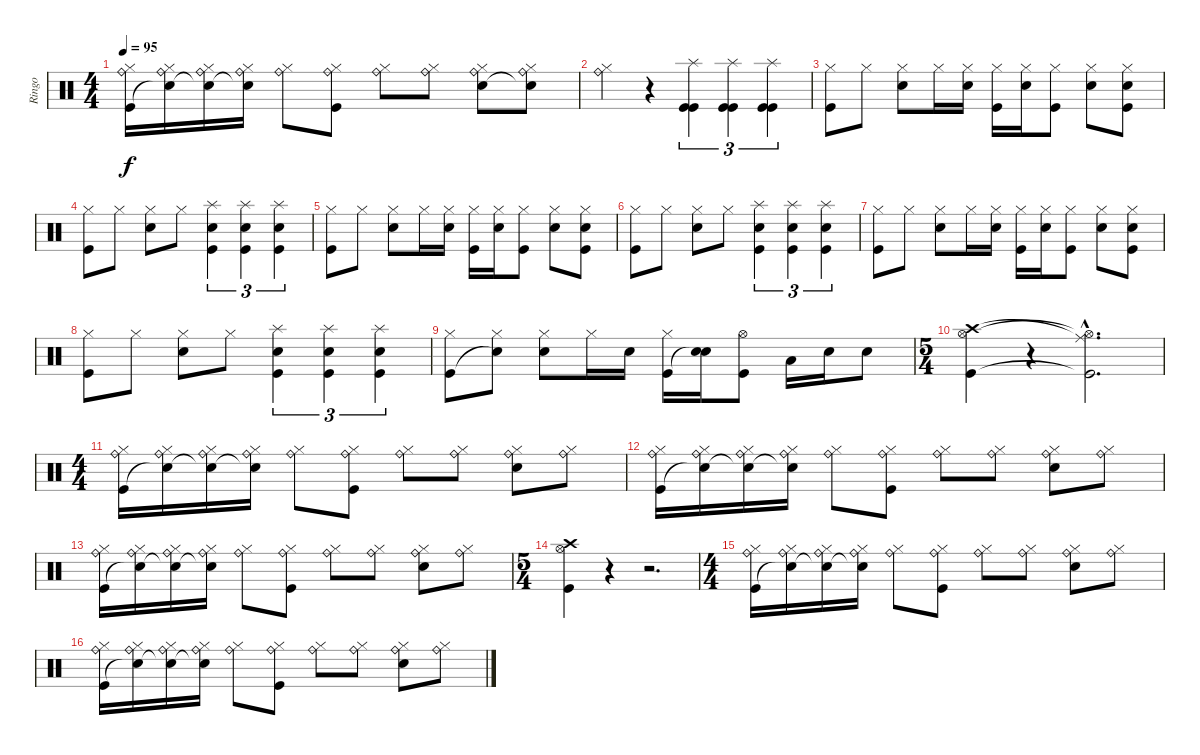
\track ("Ringo" "Ringo") {instrument percussion}
\staff {score}
\articulation defaults
\ts (4 4)
\tempo 95
\clef neutral
\ks c
("Ride (bell)" "Hi-Hat (closed)" "Kick (hit)").16{dy f} ("Ride (bell)" "Hi-Hat (closed)" "Snare (hit)"{t}).16 ("Ride (bell)" "Hi-Hat (closed)" "Snare (hit)"{t}).16 ("Ride (bell)" "Hi-Hat (closed)" "Snare (hit)"{t}).16 ("Ride (bell)" "Hi-Hat (closed)").8 ("Ride (bell)" "Hi-Hat (closed)" "Kick (hit)").8 ("Ride (bell)" "Hi-Hat (closed)").8 ("Ride (bell)" "Hi-Hat (closed)").8 ("Ride (bell)" "Hi-Hat (closed)" "Snare (hit) 2").8 ("Ride (bell)" "Hi-Hat (closed)" "Snare (hit)"{t}).8 |
("Ride (bell)" "Hi-Hat (closed)").4 r.4 ("Splash (hit)" "Kick (hit)" "Kick (hit)").4{tu (3 2)} ("Splash (hit)" "Kick (hit)" "Kick (hit)").4{tu (3 2)} ("Splash (hit)" "Kick (hit)" "Kick (hit)").4{tu (3 2)} |
("Hi-Hat (closed)" "Kick (hit)").8{volume 13} "Hi-Hat (closed)".8 ("Hi-Hat (closed)" "Snare (hit) 2").8 "Hi-Hat (closed)".16 ("Hi-Hat (closed)" "Snare (hit) 2").16 ("Hi-Hat (closed)" "Kick (hit)").16 ("Hi-Hat (closed)" "Snare (hit) 2").16 ("Hi-Hat (closed)" "Kick (hit)").8 ("Hi-Hat (closed)" "Snare (hit) 2").8 ("Hi-Hat (closed)" "Snare (hit) 2" "Kick (hit)").8 |
("Hi-Hat (closed)" "Kick (hit)").8 "Hi-Hat (closed)".8 ("Hi-Hat (closed)" "Snare (hit) 2").8 "Hi-Hat (closed)".8 ("Splash (hit)" "Snare (hit) 2" "Kick (hit)").4{tu (3 2)} ("Splash (hit)" "Snare (hit) 2" "Kick (hit)").4{tu (3 2)} ("Splash (hit)" "Snare (hit) 2" "Kick (hit)").4{tu (3 2)} |
("Hi-Hat (closed)" "Kick (hit)").8 "Hi-Hat (closed)".8 ("Hi-Hat (closed)" "Snare (hit) 2").8 "Hi-Hat (closed)".16 ("Hi-Hat (closed)" "Snare (hit) 2").16 ("Hi-Hat (closed)" "Kick (hit)").16 ("Hi-Hat (closed)" "Snare (hit) 2").16 ("Hi-Hat (closed)" "Kick (hit)").8 ("Hi-Hat (closed)" "Snare (hit) 2").8 ("Hi-Hat (closed)" "Snare (hit) 2" "Kick (hit)").8 |
("Hi-Hat (closed)" "Kick (hit)").8 "Hi-Hat (closed)".8 ("Hi-Hat (closed)" "Snare (hit) 2").8 "Hi-Hat (closed)".8 ("Splash (hit)" "Snare (hit) 2" "Kick (hit)").4{tu (3 2)} ("Splash (hit)" "Snare (hit) 2" "Kick (hit)").4{tu (3 2)} ("Splash (hit)" "Snare (hit) 2" "Kick (hit)").4{tu (3 2)} |
("Hi-Hat (closed)" "Kick (hit)").8 "Hi-Hat (closed)".8 ("Hi-Hat (closed)" "Snare (hit) 2").8 "Hi-Hat (closed)".16 ("Hi-Hat (closed)" "Snare (hit) 2").16 ("Hi-Hat (closed)" "Kick (hit)").16 ("Hi-Hat (closed)" "Snare (hit) 2").16 ("Hi-Hat (closed)" "Kick (hit)").8 ("Hi-Hat (closed)" "Snare (hit) 2").8 ("Hi-Hat (closed)" "Snare (hit) 2" "Kick (hit)").8 |
("Hi-Hat (closed)" "Kick (hit)").8 "Hi-Hat (closed)".8 ("Hi-Hat (closed)" "Snare (hit) 2").8 "Hi-Hat (closed)".8 ("Splash (hit)" "Snare (hit) 2" "Kick (hit)").4{tu (3 2)} ("Splash (hit)" "Snare (hit) 2" "Kick (hit)").4{tu (3 2)} ("Splash (hit)" "Snare (hit) 2" "Kick (hit)").4{tu (3 2)} |
("Hi-Hat (closed)" "Kick (hit)").8 ("Hi-Hat (closed)" "Snare (hit)"{t}).8 ("Hi-Hat (closed)" "Snare (hit) 2").8 "Hi-Hat (closed)".16 "Snare (hit) 2".16 ("Hi-Hat (closed)" "Kick (hit)").16 ("Snare (hit) 2" "Snare (hit)"{t}).16 ("Hi-Hat (open)" "Kick (hit)").8 "Low Floor Tom (hit)".16 "Snare (hit) 2".16 "Snare (hit) 2".8 |
\ts (5 4)
("Crash high (hit)" "Hi-Hat (open)" "Kick (hit)").4 r.4 ("Ride (middle)"{hac t} "Hi-Hat (open)"{hac t} "Kick (hit)"{hac t}).2{d} |
\ts (4 4)
("Ride (bell)" "Hi-Hat (closed)" "Kick (hit)").16 ("Ride (bell)" "Hi-Hat (closed)" "Snare (hit)"{t}).16 ("Ride (bell)" "Hi-Hat (closed)" "Snare (hit)"{t}).16 ("Ride (bell)" "Hi-Hat (closed)" "Snare (hit)"{t}).16 ("Ride (bell)" "Hi-Hat (closed)").8 ("Ride (bell)" "Hi-Hat (closed)" "Kick (hit)").8 ("Ride (bell)" "Hi-Hat (closed)").8 ("Ride (bell)" "Hi-Hat (closed)").8 ("Ride (bell)" "Hi-Hat (closed)" "Snare (hit) 2").8 ("Ride (bell)" "Hi-Hat (closed)").8 |
("Ride (bell)" "Hi-Hat (closed)" "Kick (hit)").16 ("Ride (bell)" "Hi-Hat (closed)" "Snare (hit)"{t}).16 ("Ride (bell)" "Hi-Hat (closed)" "Snare (hit)"{t}).16 ("Ride (bell)" "Hi-Hat (closed)" "Snare (hit)"{t}).16 ("Ride (bell)" "Hi-Hat (closed)").8 ("Ride (bell)" "Hi-Hat (closed)" "Kick (hit)").8 ("Ride (bell)" "Hi-Hat (closed)").8 ("Ride (bell)" "Hi-Hat (closed)").8 ("Ride (bell)" "Hi-Hat (closed)" "Snare (hit) 2").8 ("Ride (bell)" "Hi-Hat (closed)").8 |
("Ride (bell)" "Hi-Hat (closed)" "Kick (hit)").16 ("Ride (bell)" "Hi-Hat (closed)" "Snare (hit)"{t}).16 ("Ride (bell)" "Hi-Hat (closed)" "Snare (hit)"{t}).16 ("Ride (bell)" "Hi-Hat (closed)" "Snare (hit)"{t}).16 ("Ride (bell)" "Hi-Hat (closed)").8 ("Ride (bell)" "Hi-Hat (closed)" "Kick (hit)").8 ("Ride (bell)" "Hi-Hat (closed)").8 ("Ride (bell)" "Hi-Hat (closed)").8 ("Ride (bell)" "Hi-Hat (closed)" "Snare (hit) 2").8 ("Ride (bell)" "Hi-Hat (closed)").8 |
\ts (5 4)
("Crash high (hit)" "Hi-Hat (open)" "Kick (hit)").4 r.4 r.2{d} |
\ts (4 4)
("Ride (bell)" "Hi-Hat (closed)" "Kick (hit)").16 ("Ride (bell)" "Hi-Hat (closed)" "Snare (hit)"{t}).16 ("Ride (bell)" "Hi-Hat (closed)" "Snare (hit)"{t}).16 ("Ride (bell)" "Hi-Hat (closed)" "Snare (hit)"{t}).16 ("Ride (bell)" "Hi-Hat (closed)").8 ("Ride (bell)" "Hi-Hat (closed)" "Kick (hit)").8 ("Ride (bell)" "Hi-Hat (closed)").8 ("Ride (bell)" "Hi-Hat (closed)").8 ("Ride (bell)" "Hi-Hat (closed)" "Snare (hit) 2").8 ("Ride (bell)" "Hi-Hat (closed)").8 |
("Ride (bell)" "Hi-Hat (closed)" "Kick (hit)").16 ("Ride (bell)" "Hi-Hat (closed)" "Snare (hit)"{t}).16 ("Ride (bell)" "Hi-Hat (closed)" "Snare (hit)"{t}).16 ("Ride (bell)" "Hi-Hat (closed)" "Snare (hit)"{t}).16 ("Ride (bell)" "Hi-Hat (closed)").8 ("Ride (bell)" "Hi-Hat (closed)" "Kick (hit)").8 ("Ride (bell)" "Hi-Hat (closed)").8 ("Ride (bell)" "Hi-Hat (closed)").8 ("Ride (bell)" "Hi-Hat (closed)" "Snare (hit) 2").8 ("Ride (bell)" "Hi-Hat (closed)").8
